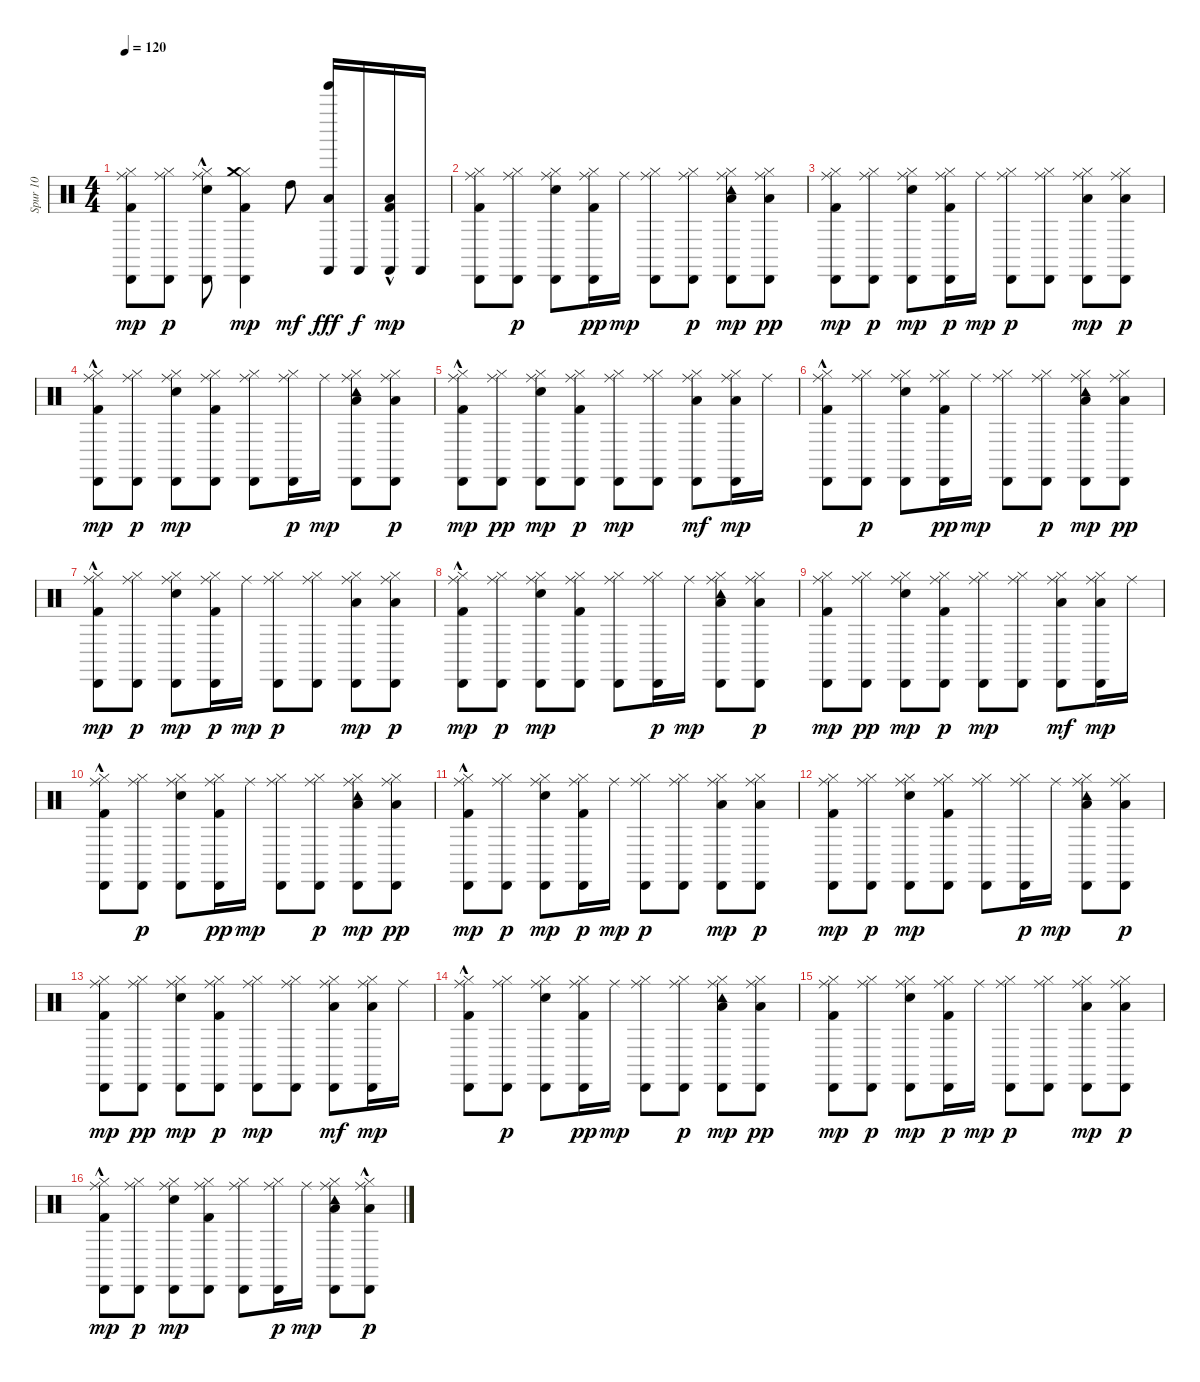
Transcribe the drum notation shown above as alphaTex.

\track ("Spur 10" "Spur 10") {instrument percussion}
\staff {score}
\articulation defaults
\ts (4 4)
\tempo 120
\clef neutral
\ks c
("Kick (hit) 2" "Hi-Hat (closed)" "Cabasa (hit)" "Ride (middle)").8{dy mp} ("Hi-Hat (closed)" "Cabasa (hit)" "Ride (middle)").8{dy p} ("Snare (hit) 2" "Hi-Hat (closed)" "Cabasa (hit)" "Ride (middle)"{hac}).8 ("Kick (hit) 2" "Hi-Hat (closed)" "Cabasa (hit)" "Crash medium (hit)").4{dy mp} "High Tom (hit)".8{dy mf} ("Low Tom (hit)" "Tinkle Bell (hit)" "Castanets (hit)").16{dy fff} "Castanets (hit)".16{dy f} ("Low Tom (hit)"{hac} "Kick (hit) 2" "Castanets (hit)").16{dy mp} "Castanets (hit)".16 |
("Kick (hit) 2" "Hi-Hat (closed)" "Cabasa (hit)" "Ride (middle)").8 ("Hi-Hat (closed)" "Cabasa (hit)" "Ride (middle)").8{dy p} ("Snare (hit) 2" "Hi-Hat (closed)" "Cabasa (hit)" "Ride (middle)").8 ("Kick (hit) 2" "Hi-Hat (closed)" "Cabasa (hit)" "Ride (middle)").16{dy pp} "Ride (middle)".16{dy mp} ("Hi-Hat (closed)" "Cabasa (hit)" "Ride (middle)").8 ("Hi-Hat (closed)" "Cabasa (hit)" "Ride (middle)").8{dy p} ("Low Tom (hit)" "Hi-Hat (closed)" "Cabasa (hit)" "Tambourine (hit)" "Ride (middle)").8{dy mp} ("Low Tom (hit)" "Hi-Hat (closed)" "Cabasa (hit)" "Ride (middle)").8{dy pp} |
("Kick (hit) 2" "Hi-Hat (closed)" "Cabasa (hit)" "Ride (middle)").8{dy mp} ("Hi-Hat (closed)" "Cabasa (hit)" "Ride (middle)").8{dy p} ("Snare (hit) 2" "Hi-Hat (closed)" "Cabasa (hit)" "Ride (middle)").8{dy mp} ("Kick (hit) 2" "Hi-Hat (closed)" "Cabasa (hit)" "Ride (middle)").16{dy p} "Ride (middle)".16{dy mp} ("Hi-Hat (closed)" "Cabasa (hit)" "Ride (middle)").8{dy p} ("Hi-Hat (closed)" "Cabasa (hit)" "Ride (middle)").8 ("Low Floor Tom (hit)" "Hi-Hat (closed)" "Cabasa (hit)" "Ride (middle)").8{dy mp} ("Low Floor Tom (hit)" "Hi-Hat (closed)" "Cabasa (hit)" "Ride (middle)").8{dy p} |
("Kick (hit) 2"{hac} "Hi-Hat (closed)" "Cabasa (hit)" "Ride (middle)").8{dy mp} ("Hi-Hat (closed)" "Cabasa (hit)" "Ride (middle)").8{dy p} ("Snare (hit) 2" "Hi-Hat (closed)" "Cabasa (hit)" "Ride (middle)").8{dy mp} ("Kick (hit) 2" "Hi-Hat (closed)" "Cabasa (hit)" "Ride (middle)").8 ("Hi-Hat (closed)" "Cabasa (hit)" "Ride (middle)").8 ("Hi-Hat (closed)" "Cabasa (hit)" "Ride (middle)").16{dy p} "Ride (middle)".16{dy mp} ("Low Tom (hit)" "Hi-Hat (closed)" "Cabasa (hit)" "Tambourine (hit)" "Ride (middle)").8 ("Low Tom (hit)" "Hi-Hat (closed)" "Cabasa (hit)" "Ride (middle)").8{dy p} |
("Kick (hit) 2"{hac} "Hi-Hat (closed)" "Cabasa (hit)" "Ride (middle)").8{dy mp} ("Hi-Hat (closed)" "Cabasa (hit)" "Ride (middle)").8{dy pp} ("Snare (hit) 2" "Hi-Hat (closed)" "Cabasa (hit)" "Ride (middle)").8{dy mp} ("Kick (hit) 2" "Hi-Hat (closed)" "Cabasa (hit)" "Ride (middle)").8{dy p} ("Hi-Hat (closed)" "Cabasa (hit)" "Ride (middle)").8{dy mp} ("Hi-Hat (closed)" "Cabasa (hit)" "Ride (middle)").8 ("Low Floor Tom (hit)" "Hi-Hat (closed)" "Cabasa (hit)" "Ride (middle)").8{dy mf} ("Low Floor Tom (hit)" "Hi-Hat (closed)" "Cabasa (hit)" "Ride (middle)").16{dy mp} "Ride (middle)".16 |
("Kick (hit) 2"{hac} "Hi-Hat (closed)" "Cabasa (hit)" "Ride (middle)").8 ("Hi-Hat (closed)" "Cabasa (hit)" "Ride (middle)").8{dy p} ("Snare (hit) 2" "Hi-Hat (closed)" "Cabasa (hit)" "Ride (middle)").8 ("Kick (hit) 2" "Hi-Hat (closed)" "Cabasa (hit)" "Ride (middle)").16{dy pp} "Ride (middle)".16{dy mp} ("Hi-Hat (closed)" "Cabasa (hit)" "Ride (middle)").8 ("Hi-Hat (closed)" "Cabasa (hit)" "Ride (middle)").8{dy p} ("Low Tom (hit)" "Hi-Hat (closed)" "Cabasa (hit)" "Tambourine (hit)" "Ride (middle)").8{dy mp} ("Low Tom (hit)" "Hi-Hat (closed)" "Cabasa (hit)" "Ride (middle)").8{dy pp} |
("Kick (hit) 2"{hac} "Hi-Hat (closed)" "Cabasa (hit)" "Ride (middle)").8{dy mp} ("Hi-Hat (closed)" "Cabasa (hit)" "Ride (middle)").8{dy p} ("Snare (hit) 2" "Hi-Hat (closed)" "Cabasa (hit)" "Ride (middle)").8{dy mp} ("Kick (hit) 2" "Hi-Hat (closed)" "Cabasa (hit)" "Ride (middle)").16{dy p} "Ride (middle)".16{dy mp} ("Hi-Hat (closed)" "Cabasa (hit)" "Ride (middle)").8{dy p} ("Hi-Hat (closed)" "Cabasa (hit)" "Ride (middle)").8 ("Low Floor Tom (hit)" "Hi-Hat (closed)" "Cabasa (hit)" "Ride (middle)").8{dy mp} ("Low Floor Tom (hit)" "Hi-Hat (closed)" "Cabasa (hit)" "Ride (middle)").8{dy p} |
("Kick (hit) 2"{hac} "Hi-Hat (closed)" "Cabasa (hit)" "Ride (middle)").8{dy mp} ("Hi-Hat (closed)" "Cabasa (hit)" "Ride (middle)").8{dy p} ("Snare (hit) 2" "Hi-Hat (closed)" "Cabasa (hit)" "Ride (middle)").8{dy mp} ("Kick (hit) 2" "Hi-Hat (closed)" "Cabasa (hit)" "Ride (middle)").8 ("Hi-Hat (closed)" "Cabasa (hit)" "Ride (middle)").8 ("Hi-Hat (closed)" "Cabasa (hit)" "Ride (middle)").16{dy p} "Ride (middle)".16{dy mp} ("Low Tom (hit)" "Hi-Hat (closed)" "Cabasa (hit)" "Tambourine (hit)" "Ride (middle)").8 ("Low Tom (hit)" "Hi-Hat (closed)" "Cabasa (hit)" "Ride (middle)").8{dy p} |
("Kick (hit) 2" "Hi-Hat (closed)" "Cabasa (hit)" "Ride (middle)").8{dy mp} ("Hi-Hat (closed)" "Cabasa (hit)" "Ride (middle)").8{dy pp} ("Snare (hit) 2" "Hi-Hat (closed)" "Cabasa (hit)" "Ride (middle)").8{dy mp} ("Kick (hit) 2" "Hi-Hat (closed)" "Cabasa (hit)" "Ride (middle)").8{dy p} ("Hi-Hat (closed)" "Cabasa (hit)" "Ride (middle)").8{dy mp} ("Hi-Hat (closed)" "Cabasa (hit)" "Ride (middle)").8 ("Low Floor Tom (hit)" "Hi-Hat (closed)" "Cabasa (hit)" "Ride (middle)").8{dy mf} ("Low Floor Tom (hit)" "Hi-Hat (closed)" "Cabasa (hit)" "Ride (middle)").16{dy mp} "Ride (middle)".16 |
("Kick (hit) 2"{hac} "Hi-Hat (closed)" "Cabasa (hit)" "Ride (middle)").8 ("Hi-Hat (closed)" "Cabasa (hit)" "Ride (middle)").8{dy p} ("Snare (hit) 2" "Hi-Hat (closed)" "Cabasa (hit)" "Ride (middle)").8 ("Kick (hit) 2" "Hi-Hat (closed)" "Cabasa (hit)" "Ride (middle)").16{dy pp} "Ride (middle)".16{dy mp} ("Hi-Hat (closed)" "Cabasa (hit)" "Ride (middle)").8 ("Hi-Hat (closed)" "Cabasa (hit)" "Ride (middle)").8{dy p} ("Low Tom (hit)" "Hi-Hat (closed)" "Cabasa (hit)" "Tambourine (hit)" "Ride (middle)").8{dy mp} ("Low Tom (hit)" "Hi-Hat (closed)" "Cabasa (hit)" "Ride (middle)").8{dy pp} |
("Kick (hit) 2"{hac} "Hi-Hat (closed)" "Cabasa (hit)" "Ride (middle)").8{dy mp} ("Hi-Hat (closed)" "Cabasa (hit)" "Ride (middle)").8{dy p} ("Snare (hit) 2" "Hi-Hat (closed)" "Cabasa (hit)" "Ride (middle)").8{dy mp} ("Kick (hit) 2" "Hi-Hat (closed)" "Cabasa (hit)" "Ride (middle)").16{dy p} "Ride (middle)".16{dy mp} ("Hi-Hat (closed)" "Cabasa (hit)" "Ride (middle)").8{dy p} ("Hi-Hat (closed)" "Cabasa (hit)" "Ride (middle)").8 ("Low Floor Tom (hit)" "Hi-Hat (closed)" "Cabasa (hit)" "Ride (middle)").8{dy mp} ("Low Floor Tom (hit)" "Hi-Hat (closed)" "Cabasa (hit)" "Ride (middle)").8{dy p} |
("Kick (hit) 2" "Hi-Hat (closed)" "Cabasa (hit)" "Ride (middle)").8{dy mp} ("Hi-Hat (closed)" "Cabasa (hit)" "Ride (middle)").8{dy p} ("Snare (hit) 2" "Hi-Hat (closed)" "Cabasa (hit)" "Ride (middle)").8{dy mp} ("Kick (hit) 2" "Hi-Hat (closed)" "Cabasa (hit)" "Ride (middle)").8 ("Hi-Hat (closed)" "Cabasa (hit)" "Ride (middle)").8 ("Hi-Hat (closed)" "Cabasa (hit)" "Ride (middle)").16{dy p} "Ride (middle)".16{dy mp} ("Low Tom (hit)" "Hi-Hat (closed)" "Cabasa (hit)" "Tambourine (hit)" "Ride (middle)").8 ("Low Tom (hit)" "Hi-Hat (closed)" "Cabasa (hit)" "Ride (middle)").8{dy p} |
("Kick (hit) 2" "Hi-Hat (closed)" "Cabasa (hit)" "Ride (middle)").8{dy mp} ("Hi-Hat (closed)" "Cabasa (hit)" "Ride (middle)").8{dy pp} ("Snare (hit) 2" "Hi-Hat (closed)" "Cabasa (hit)" "Ride (middle)").8{dy mp} ("Kick (hit) 2" "Hi-Hat (closed)" "Cabasa (hit)" "Ride (middle)").8{dy p} ("Hi-Hat (closed)" "Cabasa (hit)" "Ride (middle)").8{dy mp} ("Hi-Hat (closed)" "Cabasa (hit)" "Ride (middle)").8 ("Low Floor Tom (hit)" "Hi-Hat (closed)" "Cabasa (hit)" "Ride (middle)").8{dy mf} ("Low Floor Tom (hit)" "Hi-Hat (closed)" "Cabasa (hit)" "Ride (middle)").16{dy mp} "Ride (middle)".16 |
("Kick (hit) 2"{hac} "Hi-Hat (closed)" "Cabasa (hit)" "Ride (middle)").8 ("Hi-Hat (closed)" "Cabasa (hit)" "Ride (middle)").8{dy p} ("Snare (hit) 2" "Hi-Hat (closed)" "Cabasa (hit)" "Ride (middle)").8 ("Kick (hit) 2" "Hi-Hat (closed)" "Cabasa (hit)" "Ride (middle)").16{dy pp} "Ride (middle)".16{dy mp} ("Hi-Hat (closed)" "Cabasa (hit)" "Ride (middle)").8 ("Hi-Hat (closed)" "Cabasa (hit)" "Ride (middle)").8{dy p} ("Low Tom (hit)" "Hi-Hat (closed)" "Cabasa (hit)" "Tambourine (hit)" "Ride (middle)").8{dy mp} ("Low Tom (hit)" "Hi-Hat (closed)" "Cabasa (hit)" "Ride (middle)").8{dy pp} |
("Kick (hit) 2" "Hi-Hat (closed)" "Cabasa (hit)" "Ride (middle)").8{dy mp} ("Hi-Hat (closed)" "Cabasa (hit)" "Ride (middle)").8{dy p} ("Snare (hit) 2" "Hi-Hat (closed)" "Cabasa (hit)" "Ride (middle)").8{dy mp} ("Kick (hit) 2" "Hi-Hat (closed)" "Cabasa (hit)" "Ride (middle)").16{dy p} "Ride (middle)".16{dy mp} ("Hi-Hat (closed)" "Cabasa (hit)" "Ride (middle)").8{dy p} ("Hi-Hat (closed)" "Cabasa (hit)" "Ride (middle)").8 ("Low Floor Tom (hit)" "Hi-Hat (closed)" "Cabasa (hit)" "Ride (middle)").8{dy mp} ("Low Floor Tom (hit)" "Hi-Hat (closed)" "Cabasa (hit)" "Ride (middle)").8{dy p} |
("Kick (hit) 2"{hac} "Hi-Hat (closed)" "Cabasa (hit)" "Ride (middle)").8{dy mp} ("Hi-Hat (closed)" "Cabasa (hit)" "Ride (middle)").8{dy p} ("Snare (hit) 2" "Hi-Hat (closed)" "Cabasa (hit)" "Ride (middle)").8{dy mp} ("Kick (hit) 2" "Hi-Hat (closed)" "Cabasa (hit)" "Ride (middle)").8 ("Hi-Hat (closed)" "Cabasa (hit)" "Ride (middle)").8 ("Hi-Hat (closed)" "Cabasa (hit)" "Ride (middle)").16{dy p} "Ride (middle)".16{dy mp} ("Low Tom (hit)" "Hi-Hat (closed)" "Cabasa (hit)" "Tambourine (hit)" "Ride (middle)").8 ("Low Tom (hit)"{hac} "Hi-Hat (closed)" "Cabasa (hit)" "Ride (middle)").8{dy p}
